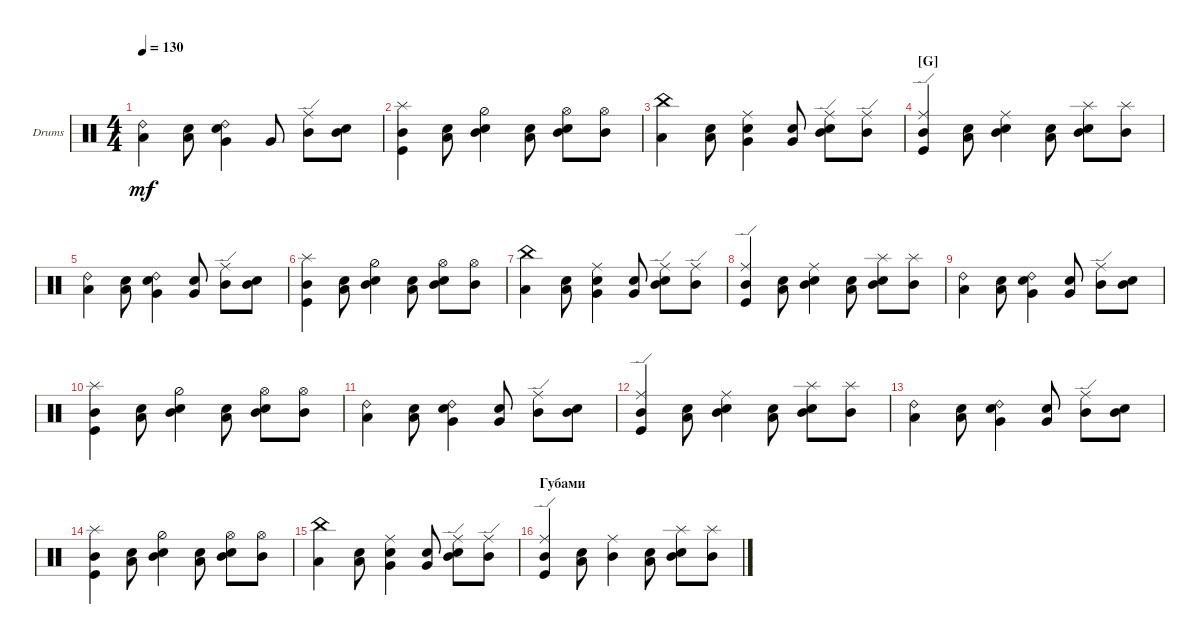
\defaultSystemsLayout 4
\bracketExtendMode groupsimilarinstruments
\firstSystemTrackNameOrientation horizontal
\otherSystemsTrackNameOrientation horizontal
\track ("Drumkit" "Drums") {instrument percussion}
\staff {score}
\articulation defaults
\ts (4 4)
\tempo 130
\clef neutral
\ks c
("Low Tom (hit)" "Ride (bell) 2").4{dy mf} ("Low Tom (hit)" "Snare (hit) 2").8 ("Very Low Tom (hit)" "Snare (hit) 2" "Ride (bell) 2").4 "Very Low Tom (hit)".8 ("Mid Tom (hit)" "Ride (edge)").8 ("Mid Tom (hit)" "Snare (hit) 2").8 |
("Mid Tom (hit)" "Kick (hit)" "Splash (hit)").4 ("Low Tom (hit)" "Snare (hit) 2").8 ("Mid Tom (hit)" "Snare (hit) 2" "Hi-Hat (half)").4 ("Low Tom (hit)" "Snare (hit) 2").8 ("Mid Tom (hit)" "Snare (hit) 2" "Hi-Hat (open)").8 ("Mid Tom (hit)" "Hi-Hat (open)").8 |
("Low Tom (hit)" "China (hit)").4 ("Low Tom (hit)" "Snare (hit) 2").8 ("Very Low Tom (hit)" "Snare (hit) 2" "Ride (middle)").4 ("Very Low Tom (hit)" "Snare (hit) 2").8 ("Mid Tom (hit)" "Snare (hit) 2" "Ride (edge)").8 ("Mid Tom (hit)" "Ride (edge)").8 |
\section ("G" "")
("Mid Tom (hit)" "Kick (hit)" "Ride (edge)").4 ("Low Tom (hit)" "Snare (hit) 2").8 ("Mid Tom (hit)" "Snare (hit) 2" "Ride (middle)").4 ("Low Tom (hit)" "Snare (hit) 2").8 ("Mid Tom (hit)" "Snare (hit) 2" "Splash (hit)").8 ("Mid Tom (hit)" "Splash (hit)").8 |
("Low Tom (hit)" "Ride (bell) 2").4 ("Low Tom (hit)" "Snare (hit) 2").8 ("Very Low Tom (hit)" "Snare (hit) 2" "Ride (bell) 2").4 ("Very Low Tom (hit)" "Snare (hit) 2").8 ("Mid Tom (hit)" "Ride (edge)").8 ("Mid Tom (hit)" "Snare (hit) 2").8 |
("Mid Tom (hit)" "Kick (hit)" "Splash (hit)").4 ("Low Tom (hit)" "Snare (hit) 2").8 ("Mid Tom (hit)" "Snare (hit) 2" "Hi-Hat (half)").4 ("Low Tom (hit)" "Snare (hit) 2").8 ("Mid Tom (hit)" "Snare (hit) 2" "Hi-Hat (open)").8 ("Mid Tom (hit)" "Hi-Hat (open)").8 |
("Low Tom (hit)" "China (hit)").4 ("Low Tom (hit)" "Snare (hit) 2").8 ("Very Low Tom (hit)" "Snare (hit) 2" "Ride (middle)").4 ("Very Low Tom (hit)" "Snare (hit) 2").8 ("Mid Tom (hit)" "Snare (hit) 2" "Ride (edge)").8 ("Mid Tom (hit)" "Ride (edge)").8 |
("Mid Tom (hit)" "Kick (hit)" "Ride (edge)").4 ("Low Tom (hit)" "Snare (hit) 2").8 ("Mid Tom (hit)" "Snare (hit) 2" "Ride (middle)").4 ("Low Tom (hit)" "Snare (hit) 2").8 ("Mid Tom (hit)" "Snare (hit) 2" "Splash (hit)").8 ("Mid Tom (hit)" "Splash (hit)").8 |
("Low Tom (hit)" "Ride (bell) 2").4 ("Low Tom (hit)" "Snare (hit) 2").8 ("Very Low Tom (hit)" "Snare (hit) 2" "Ride (bell) 2").4 ("Very Low Tom (hit)" "Snare (hit) 2").8 ("Mid Tom (hit)" "Ride (edge)").8 ("Mid Tom (hit)" "Snare (hit) 2").8 |
("Mid Tom (hit)" "Kick (hit)" "Splash (hit)").4 ("Low Tom (hit)" "Snare (hit) 2").8 ("Mid Tom (hit)" "Snare (hit) 2" "Hi-Hat (half)").4 ("Low Tom (hit)" "Snare (hit) 2").8 ("Mid Tom (hit)" "Snare (hit) 2" "Hi-Hat (open)").8 ("Mid Tom (hit)" "Hi-Hat (open)").8 |
("Low Tom (hit)" "Ride (bell) 2").4 ("Low Tom (hit)" "Snare (hit) 2").8 ("Very Low Tom (hit)" "Snare (hit) 2" "Ride (bell) 2").4 ("Very Low Tom (hit)" "Snare (hit) 2").8 ("Mid Tom (hit)" "Ride (edge)").8 ("Mid Tom (hit)" "Snare (hit) 2").8 |
("Mid Tom (hit)" "Kick (hit)" "Ride (edge)").4 ("Low Tom (hit)" "Snare (hit) 2").8 ("Mid Tom (hit)" "Snare (hit) 2" "Ride (middle)").4 ("Low Tom (hit)" "Snare (hit) 2").8 ("Mid Tom (hit)" "Snare (hit) 2" "Splash (hit)").8 ("Mid Tom (hit)" "Splash (hit)").8 |
("Low Tom (hit)" "Ride (bell) 2").4 ("Low Tom (hit)" "Snare (hit) 2").8 ("Very Low Tom (hit)" "Snare (hit) 2" "Ride (bell) 2").4 ("Very Low Tom (hit)" "Snare (hit) 2").8 ("Mid Tom (hit)" "Ride (edge)").8 ("Mid Tom (hit)" "Snare (hit) 2").8 |
("Mid Tom (hit)" "Kick (hit)" "Splash (hit)").4 ("Low Tom (hit)" "Snare (hit) 2").8 ("Mid Tom (hit)" "Snare (hit) 2" "Hi-Hat (half)").4 ("Low Tom (hit)" "Snare (hit) 2").8 ("Mid Tom (hit)" "Snare (hit) 2" "Hi-Hat (open)").8 ("Mid Tom (hit)" "Hi-Hat (open)").8 |
("Low Tom (hit)" "China (hit)").4 ("Low Tom (hit)" "Snare (hit) 2").8 ("Very Low Tom (hit)" "Snare (hit) 2" "Ride (middle)").4 ("Very Low Tom (hit)" "Snare (hit) 2").8 ("Mid Tom (hit)" "Snare (hit) 2" "Ride (edge)").8 ("Mid Tom (hit)" "Ride (edge)").8 |
\section ("" "Губами")
("Mid Tom (hit)" "Kick (hit)" "Ride (edge)").4 ("Low Tom (hit)" "Snare (hit) 2").8 ("Mid Tom (hit)" "Ride (middle)").4 ("Low Tom (hit)" "Snare (hit) 2").8 ("Mid Tom (hit)" "Snare (hit) 2" "Splash (hit)").8 ("Mid Tom (hit)" "Splash (hit)").8
